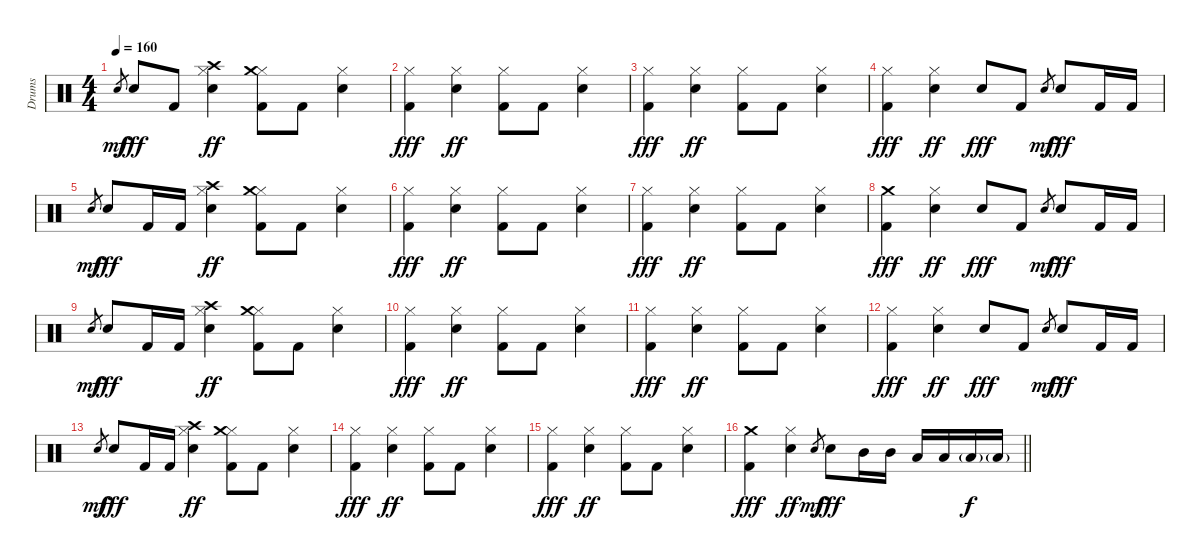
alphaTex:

\track ("Drums" "Drums") {instrument percussion}
\staff {score}
\articulation defaults
\ts (4 4)
\section ("" "")
\tempo 160
\clef neutral
\ks c "Electric Snare (hit)".8{gr dy mf} "Electric Snare (hit)".8{dy fff} "Kick (hit) 2".8
("Hi-Hat (closed)" "Crash high (hit)" "Electric Snare (hit)").4{dy ff} ("Hi-Hat (closed)" "Crash medium (hit)" "Kick (hit) 2").8 "Kick (hit) 2".8 ("Hi-Hat (closed)" "Electric Snare (hit)").4 |
("Hi-Hat (closed)" "Kick (hit) 2").4{dy fff} ("Hi-Hat (closed)" "Electric Snare (hit)").4{dy ff} ("Hi-Hat (closed)" "Kick (hit) 2").8 "Kick (hit) 2".8 ("Hi-Hat (closed)" "Electric Snare (hit)").4 |
("Hi-Hat (closed)" "Kick (hit) 2").4{dy fff} ("Hi-Hat (closed)" "Electric Snare (hit)").4{dy ff} ("Hi-Hat (closed)" "Kick (hit) 2").8 "Kick (hit) 2".8 ("Hi-Hat (closed)" "Electric Snare (hit)").4 |
("Hi-Hat (closed)" "Kick (hit) 2").4{dy fff} ("Hi-Hat (closed)" "Electric Snare (hit)").4{dy ff} "Electric Snare (hit)".8{dy fff} "Kick (hit) 2".8 "Electric Snare (hit)".8{gr dy mf} "Electric Snare (hit)".8{dy fff} "Kick (hit) 2".16 "Kick (hit) 2".16 |
"Electric Snare (hit)".8{gr dy mf} "Electric Snare (hit)".8{dy fff} "Kick (hit) 2".16 "Kick (hit) 2".16 ("Hi-Hat (closed)" "Crash high (hit)" "Electric Snare (hit)").4{dy ff} ("Hi-Hat (closed)" "Crash medium (hit)" "Kick (hit) 2").8 "Kick (hit) 2".8 ("Hi-Hat (closed)" "Electric Snare (hit)").4 |
("Hi-Hat (closed)" "Kick (hit) 2").4{dy fff} ("Hi-Hat (closed)" "Electric Snare (hit)").4{dy ff} ("Hi-Hat (closed)" "Kick (hit) 2").8 "Kick (hit) 2".8 ("Hi-Hat (closed)" "Electric Snare (hit)").4 |
("Hi-Hat (closed)" "Kick (hit) 2").4{dy fff} ("Hi-Hat (closed)" "Electric Snare (hit)").4{dy ff} ("Hi-Hat (closed)" "Kick (hit) 2").8 "Kick (hit) 2".8 ("Hi-Hat (closed)" "Electric Snare (hit)").4 |
("Crash medium (hit)" "Kick (hit) 2").4{dy fff} ("Hi-Hat (closed)" "Electric Snare (hit)").4{dy ff} "Electric Snare (hit)".8{dy fff} "Kick (hit) 2".8 "Electric Snare (hit)".8{gr dy mf} "Electric Snare (hit)".8{dy fff} "Kick (hit) 2".16 "Kick (hit) 2".16 |
"Electric Snare (hit)".8{gr dy mf} "Electric Snare (hit)".8{dy fff} "Kick (hit) 2".16 "Kick (hit) 2".16 ("Hi-Hat (closed)" "Crash high (hit)" "Electric Snare (hit)").4{dy ff} ("Hi-Hat (closed)" "Crash medium (hit)" "Kick (hit) 2").8 "Kick (hit) 2".8 ("Hi-Hat (closed)" "Electric Snare (hit)").4 |
("Hi-Hat (closed)" "Kick (hit) 2").4{dy fff} ("Hi-Hat (closed)" "Electric Snare (hit)").4{dy ff} ("Hi-Hat (closed)" "Kick (hit) 2").8 "Kick (hit) 2".8 ("Hi-Hat (closed)" "Electric Snare (hit)").4 |
("Hi-Hat (closed)" "Kick (hit) 2").4{dy fff} ("Hi-Hat (closed)" "Electric Snare (hit)").4{dy ff} ("Hi-Hat (closed)" "Kick (hit) 2").8 "Kick (hit) 2".8 ("Hi-Hat (closed)" "Electric Snare (hit)").4 |
("Hi-Hat (closed)" "Kick (hit) 2").4{dy fff} ("Hi-Hat (closed)" "Electric Snare (hit)").4{dy ff} "Electric Snare (hit)".8{dy fff} "Kick (hit) 2".8 "Electric Snare (hit)".8{gr dy mf} "Electric Snare (hit)".8{dy fff} "Kick (hit) 2".16 "Kick (hit) 2".16 |
"Electric Snare (hit)".8{gr dy mf} "Electric Snare (hit)".8{dy fff} "Kick (hit) 2".16 "Kick (hit) 2".16 ("Hi-Hat (closed)" "Crash high (hit)" "Electric Snare (hit)").4{dy ff} ("Hi-Hat (closed)" "Crash medium (hit)" "Kick (hit) 2").8 "Kick (hit) 2".8 ("Hi-Hat (closed)" "Electric Snare (hit)").4 |
("Hi-Hat (closed)" "Kick (hit) 2").4{dy fff} ("Hi-Hat (closed)" "Electric Snare (hit)").4{dy ff} ("Hi-Hat (closed)" "Kick (hit) 2").8 "Kick (hit) 2".8 ("Hi-Hat (closed)" "Electric Snare (hit)").4 |
("Hi-Hat (closed)" "Kick (hit) 2").4{dy fff} ("Hi-Hat (closed)" "Electric Snare (hit)").4{dy ff} ("Hi-Hat (closed)" "Kick (hit) 2").8 "Kick (hit) 2".8 ("Hi-Hat (closed)" "Electric Snare (hit)").4 |
\barLineRight lightlight
("Crash medium (hit)" "Kick (hit) 2").4{dy fff} ("Hi-Hat (closed)" "Electric Snare (hit)").4{dy ff} "Electric Snare (hit)".8{gr dy mf} "Electric Snare (hit)".8{dy fff} "Mid Tom (hit)".16 "Mid Tom (hit)".16 "Low Tom (hit)".16 "Low Tom (hit)".16 "Low Tom (hit)"{g}.16{dy f} "Low Tom (hit)"{g}.16
